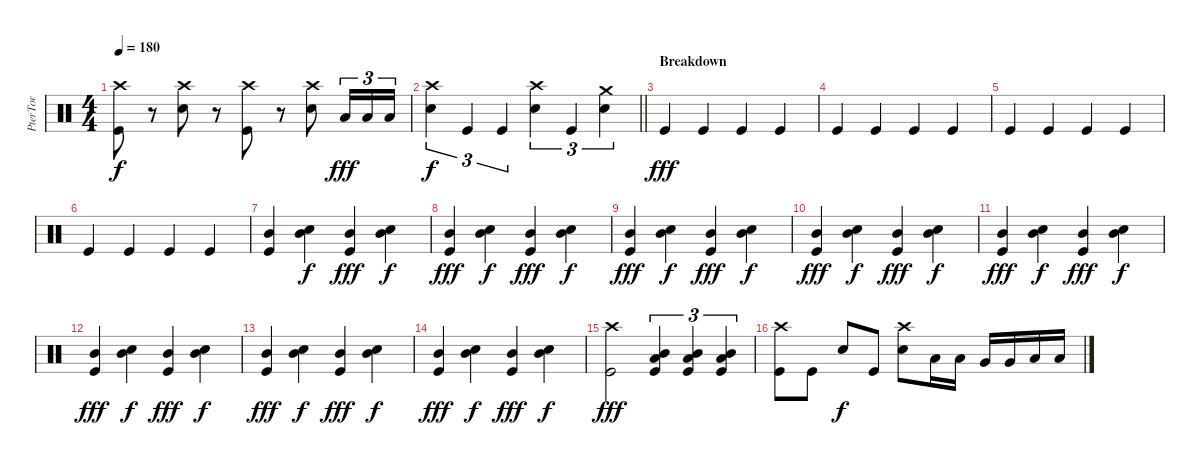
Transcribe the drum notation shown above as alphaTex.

\track ("PterTor" "PterTor") {instrument percussion}
\staff {score}
\articulation defaults
\ts (4 4)
\tempo 180
\clef neutral
\ks c
("Crash high (hit)" "Kick (hit)").8{dy f} r.8 ("Crash high (hit)" "Electric Snare (hit)").8 r.8 ("Crash high (hit)" "Kick (hit)").8 r.8 ("Crash high (hit)" "Electric Snare (hit)").8 "Low Floor Tom (hit)".16{tu (3 2) dy fff} "Low Floor Tom (hit)".16{tu (3 2)} "Low Floor Tom (hit)".16{tu (3 2)} |
\barLineRight lightlight
("Crash high (hit)" "Electric Snare (hit)").4{tu (3 2) dy f} "Kick (hit)".4{tu (3 2)} "Kick (hit)".4{tu (3 2)} ("Crash high (hit)" "Electric Snare (hit)").4{tu (3 2)} "Kick (hit)".4{tu (3 2)} ("Crash medium (hit)" "Electric Snare (hit)").4{tu (3 2)} |
\section ("" "Breakdown")
"Kick (hit)".4{dy fff} "Kick (hit)".4 "Kick (hit)".4 "Kick (hit)".4 |
"Kick (hit)".4 "Kick (hit)".4 "Kick (hit)".4 "Kick (hit)".4 |
"Kick (hit)".4 "Kick (hit)".4 "Kick (hit)".4 "Kick (hit)".4 |
"Kick (hit)".4 "Kick (hit)".4 "Kick (hit)".4 "Kick (hit)".4 |
("Mid Tom (hit)" "Kick (hit)").4 ("Electric Snare (hit)" "Mid Tom (hit)").4{dy f} ("Mid Tom (hit)" "Kick (hit)").4{dy fff} ("Electric Snare (hit)" "Mid Tom (hit)").4{dy f} |
("Mid Tom (hit)" "Kick (hit)").4{dy fff} ("Electric Snare (hit)" "Mid Tom (hit)").4{dy f} ("Mid Tom (hit)" "Kick (hit)").4{dy fff} ("Electric Snare (hit)" "Mid Tom (hit)").4{dy f} |
("Mid Tom (hit)" "Kick (hit)").4{dy fff} ("Electric Snare (hit)" "Mid Tom (hit)").4{dy f} ("Mid Tom (hit)" "Kick (hit)").4{dy fff} ("Electric Snare (hit)" "Mid Tom (hit)").4{dy f} |
("Mid Tom (hit)" "Kick (hit)").4{dy fff} ("Electric Snare (hit)" "Mid Tom (hit)").4{dy f} ("Mid Tom (hit)" "Kick (hit)").4{dy fff} ("Electric Snare (hit)" "Mid Tom (hit)").4{dy f} |
("Mid Tom (hit)" "Kick (hit)").4{dy fff} ("Electric Snare (hit)" "Mid Tom (hit)").4{dy f} ("Mid Tom (hit)" "Kick (hit)").4{dy fff} ("Electric Snare (hit)" "Mid Tom (hit)").4{dy f} |
("Mid Tom (hit)" "Kick (hit)").4{dy fff} ("Electric Snare (hit)" "Mid Tom (hit)").4{dy f} ("Mid Tom (hit)" "Kick (hit)").4{dy fff} ("Electric Snare (hit)" "Mid Tom (hit)").4{dy f} |
("Mid Tom (hit)" "Kick (hit)").4{dy fff} ("Electric Snare (hit)" "Mid Tom (hit)").4{dy f} ("Mid Tom (hit)" "Kick (hit)").4{dy fff} ("Electric Snare (hit)" "Mid Tom (hit)").4{dy f} |
("Mid Tom (hit)" "Kick (hit)").4{dy fff} ("Electric Snare (hit)" "Mid Tom (hit)").4{dy f} ("Mid Tom (hit)" "Kick (hit)").4{dy fff} ("Electric Snare (hit)" "Mid Tom (hit)").4{dy f} |
("Crash high (hit)" "Kick (hit)").2{dy fff} ("Low Tom (hit)" "Mid Tom (hit)" "Kick (hit)").4{tu (3 2)} ("Low Tom (hit)" "Mid Tom (hit)" "Kick (hit)").4{tu (3 2)} ("Low Tom (hit)" "Mid Tom (hit)" "Kick (hit)").4{tu (3 2)} |
("Crash high (hit)" "Kick (hit)").8 "Kick (hit)".8 "Electric Snare (hit)".8{dy f} "Kick (hit)".8 ("Crash high (hit)" "Electric Snare (hit)").8 "Low Tom (hit)".16 "Low Tom (hit)".16 "Very Low Tom (hit)".16 "Very Low Tom (hit)".16 "Low Floor Tom (hit)".16 "Low Floor Tom (hit)".16
